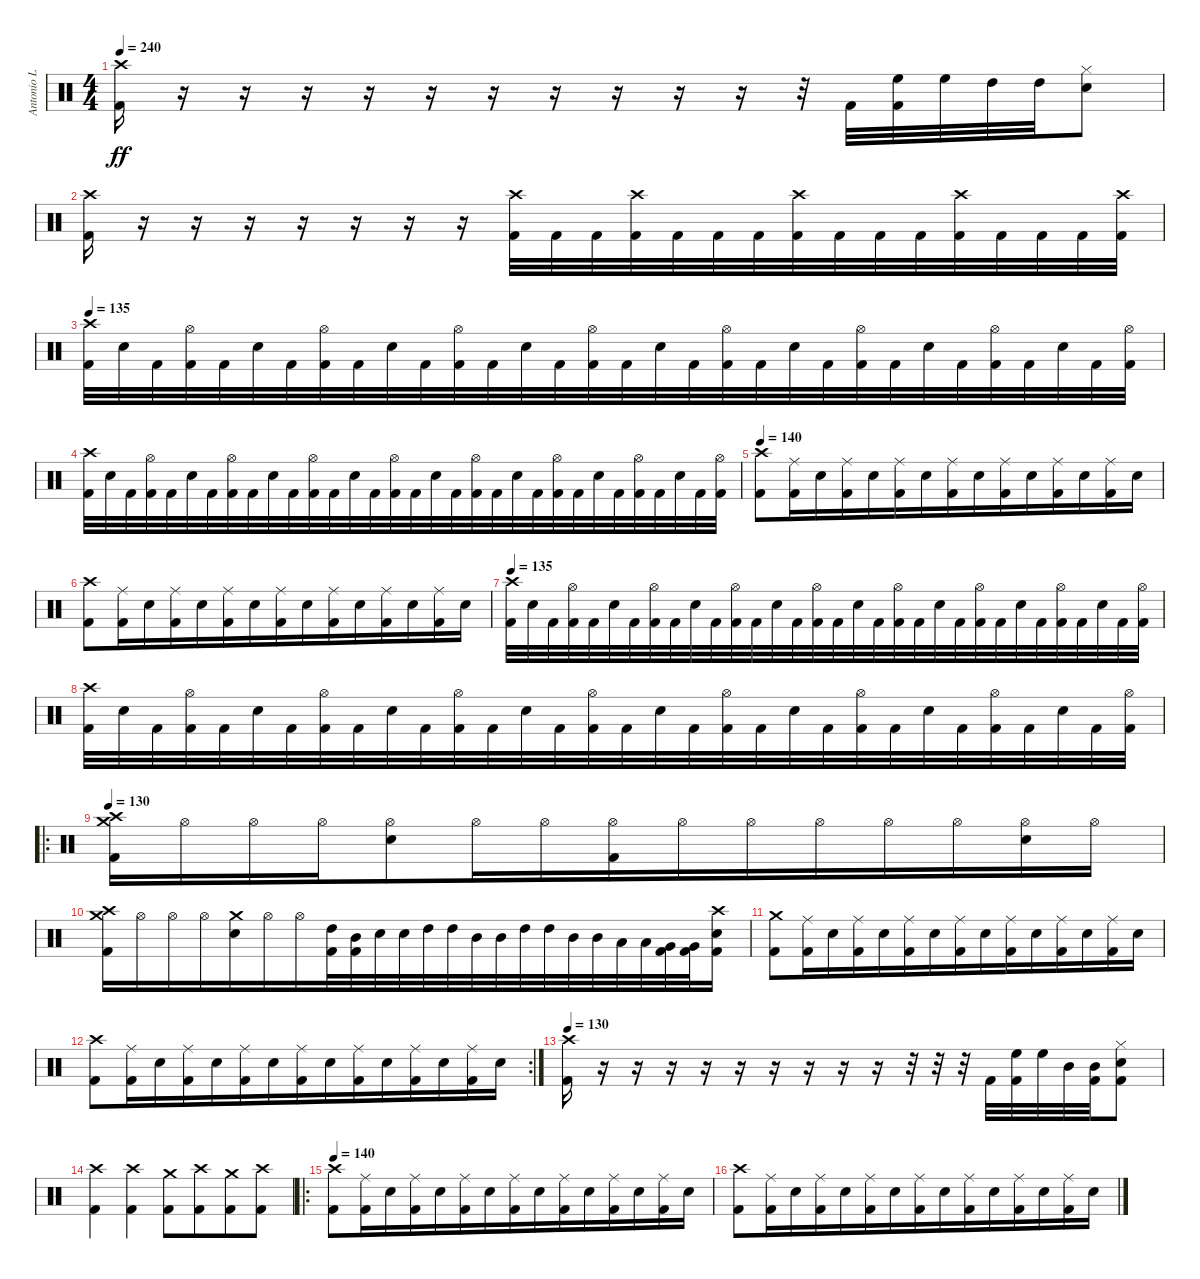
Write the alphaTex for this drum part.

\track ("Antonio L" "Antonio L") {instrument percussion}
\staff {score}
\articulation defaults
\ts (4 4)
\section ("" "")
\tempo 240
\tempo 140
\tempo 240
\clef neutral
\ks c
("Kick (hit) 2" "Crash high (hit)").16{dy ff} r.16 r.16 r.16 r.16 r.16 r.16 r.16 r.16 r.16 r.16 r.32 "Kick (hit) 2".32{beam merge} ("High Floor Tom (hit)" "Kick (hit) 2").32 "High Floor Tom (hit)".32 "High Tom (hit)".32 "High Tom (hit)".32 ("Hi-Hat (closed)" "Electric Snare (hit)").8 |
("Kick (hit) 2" "Crash high (hit)").16 r.16 r.16 r.16 r.16 r.16 r.16 r.16 ("Crash high (hit)" "Kick (hit) 2").32 "Kick (hit) 2".32 "Kick (hit) 2".32 ("Crash high (hit)" "Kick (hit) 2").32 "Kick (hit) 2".32 "Kick (hit) 2".32 "Kick (hit) 2".32 ("Crash high (hit)" "Kick (hit) 2").32{beam merge} "Kick (hit) 2".32 "Kick (hit) 2".32 "Kick (hit) 2".32 ("Crash high (hit)" "Kick (hit) 2").32 "Kick (hit) 2".32 "Kick (hit) 2".32 "Kick (hit) 2".32 ("Crash high (hit)" "Kick (hit) 2").32 |
\tempo 135
("Crash high (hit)" "Kick (hit) 2").32 "Electric Snare (hit)".32 "Kick (hit) 2".32 ("Hi-Hat (open)" "Kick (hit) 2").32 "Kick (hit) 2".32 "Electric Snare (hit)".32 "Kick (hit) 2".32 ("Hi-Hat (open)" "Kick (hit) 2").32{beam merge} "Kick (hit) 2".32 "Electric Snare (hit)".32 "Kick (hit) 2".32 ("Hi-Hat (open)" "Kick (hit) 2").32 "Kick (hit) 2".32 "Electric Snare (hit)".32 "Kick (hit) 2".32 ("Hi-Hat (open)" "Kick (hit) 2").32{beam merge} "Kick (hit) 2".32 "Electric Snare (hit)".32 "Kick (hit) 2".32 ("Hi-Hat (open)" "Kick (hit) 2").32 "Kick (hit) 2".32 "Electric Snare (hit)".32 "Kick (hit) 2".32 ("Hi-Hat (open)" "Kick (hit) 2").32{beam merge} "Kick (hit) 2".32 "Electric Snare (hit)".32 "Kick (hit) 2".32 ("Hi-Hat (open)" "Kick (hit) 2").32 "Kick (hit) 2".32 "Electric Snare (hit)".32 "Kick (hit) 2".32 ("Hi-Hat (open)" "Kick (hit) 2").32 |
("Crash high (hit)" "Kick (hit) 2").32 "Electric Snare (hit)".32 "Kick (hit) 2".32 ("Hi-Hat (open)" "Kick (hit) 2").32 "Kick (hit) 2".32 "Electric Snare (hit)".32 "Kick (hit) 2".32 ("Hi-Hat (open)" "Kick (hit) 2").32{beam merge} "Kick (hit) 2".32 "Electric Snare (hit)".32 "Kick (hit) 2".32 ("Hi-Hat (open)" "Kick (hit) 2").32 "Kick (hit) 2".32 "Electric Snare (hit)".32 "Kick (hit) 2".32 ("Hi-Hat (open)" "Kick (hit) 2").32{beam merge} "Kick (hit) 2".32 "Electric Snare (hit)".32 "Kick (hit) 2".32 ("Hi-Hat (open)" "Kick (hit) 2").32 "Kick (hit) 2".32 "Electric Snare (hit)".32 "Kick (hit) 2".32 ("Hi-Hat (open)" "Kick (hit) 2").32{beam merge} "Kick (hit) 2".32 "Electric Snare (hit)".32 "Kick (hit) 2".32 ("Hi-Hat (open)" "Kick (hit) 2").32 "Kick (hit) 2".32 "Electric Snare (hit)".32 "Kick (hit) 2".32 ("Hi-Hat (open)" "Kick (hit) 2").32 |
\tempo 140
("Crash high (hit)" "Kick (hit) 2").8 ("Ride (middle)" "Kick (hit) 2").16 "Electric Snare (hit)".16{beam merge} ("Ride (middle)" "Kick (hit) 2").16 "Electric Snare (hit)".16 ("Ride (middle)" "Kick (hit) 2").16 "Electric Snare (hit)".16{beam merge} ("Ride (middle)" "Kick (hit) 2").16 "Electric Snare (hit)".16 ("Ride (middle)" "Kick (hit) 2").16 "Electric Snare (hit)".16{beam merge} ("Ride (middle)" "Kick (hit) 2").16 "Electric Snare (hit)".16 ("Ride (middle)" "Kick (hit) 2").16 "Electric Snare (hit)".16 |
("Crash high (hit)" "Kick (hit) 2").8 ("Ride (middle)" "Kick (hit) 2").16 "Electric Snare (hit)".16{beam merge} ("Ride (middle)" "Kick (hit) 2").16 "Electric Snare (hit)".16 ("Ride (middle)" "Kick (hit) 2").16 "Electric Snare (hit)".16{beam merge} ("Ride (middle)" "Kick (hit) 2").16 "Electric Snare (hit)".16 ("Ride (middle)" "Kick (hit) 2").16 "Electric Snare (hit)".16{beam merge} ("Ride (middle)" "Kick (hit) 2").16 "Electric Snare (hit)".16 ("Ride (middle)" "Kick (hit) 2").16 "Electric Snare (hit)".16 |
\tempo 135
("Crash high (hit)" "Kick (hit) 2").32 "Electric Snare (hit)".32 "Kick (hit) 2".32 ("Hi-Hat (open)" "Kick (hit) 2").32 "Kick (hit) 2".32 "Electric Snare (hit)".32 "Kick (hit) 2".32 ("Hi-Hat (open)" "Kick (hit) 2").32{beam merge} "Kick (hit) 2".32 "Electric Snare (hit)".32 "Kick (hit) 2".32 ("Hi-Hat (open)" "Kick (hit) 2").32 "Kick (hit) 2".32 "Electric Snare (hit)".32 "Kick (hit) 2".32 ("Hi-Hat (open)" "Kick (hit) 2").32{beam merge} "Kick (hit) 2".32 "Electric Snare (hit)".32 "Kick (hit) 2".32 ("Hi-Hat (open)" "Kick (hit) 2").32 "Kick (hit) 2".32 "Electric Snare (hit)".32 "Kick (hit) 2".32 ("Hi-Hat (open)" "Kick (hit) 2").32{beam merge} "Kick (hit) 2".32 "Electric Snare (hit)".32 "Kick (hit) 2".32 ("Hi-Hat (open)" "Kick (hit) 2").32 "Kick (hit) 2".32 "Electric Snare (hit)".32 "Kick (hit) 2".32 ("Hi-Hat (open)" "Kick (hit) 2").32 |
("Crash high (hit)" "Kick (hit) 2").32 "Electric Snare (hit)".32 "Kick (hit) 2".32 ("Hi-Hat (open)" "Kick (hit) 2").32 "Kick (hit) 2".32 "Electric Snare (hit)".32 "Kick (hit) 2".32 ("Hi-Hat (open)" "Kick (hit) 2").32{beam merge} "Kick (hit) 2".32 "Electric Snare (hit)".32 "Kick (hit) 2".32 ("Hi-Hat (open)" "Kick (hit) 2").32 "Kick (hit) 2".32 "Electric Snare (hit)".32 "Kick (hit) 2".32 ("Hi-Hat (open)" "Kick (hit) 2").32{beam merge} "Kick (hit) 2".32 "Electric Snare (hit)".32 "Kick (hit) 2".32 ("Hi-Hat (open)" "Kick (hit) 2").32 "Kick (hit) 2".32 "Electric Snare (hit)".32 "Kick (hit) 2".32 ("Hi-Hat (open)" "Kick (hit) 2").32{beam merge} "Kick (hit) 2".32 "Electric Snare (hit)".32 "Kick (hit) 2".32 ("Hi-Hat (open)" "Kick (hit) 2").32 "Kick (hit) 2".32 "Electric Snare (hit)".32 "Kick (hit) 2".32 ("Hi-Hat (open)" "Kick (hit) 2").32 |
\ro
\tempo 130
("Crash medium (hit)" "Crash high (hit)" "Kick (hit) 2").16 "Hi-Hat (open)".16 "Hi-Hat (open)".16 "Hi-Hat (open)".16{beam merge} ("Hi-Hat (open)" "Electric Snare (hit)").8 "Hi-Hat (open)".16 "Hi-Hat (open)".16{beam merge} ("Hi-Hat (open)" "Kick (hit) 2").16 "Hi-Hat (open)".16 "Hi-Hat (open)".16 "Hi-Hat (open)".16{beam merge} "Hi-Hat (open)".16 "Hi-Hat (open)".16 ("Hi-Hat (open)" "Electric Snare (hit)").16 "Hi-Hat (open)".16 |
("Crash medium (hit)" "Crash high (hit)" "Kick (hit) 2").16 "Hi-Hat (open)".16 "Hi-Hat (open)".16 "Hi-Hat (open)".16{beam merge} ("Crash medium (hit)" "Electric Snare (hit)").16 "Hi-Hat (open)".16 "Hi-Hat (open)".16 ("High Tom (hit)" "Kick (hit) 2").32 ("Mid Tom (hit)" "Kick (hit) 2").32{beam merge} "Electric Snare (hit)".32 "Electric Snare (hit)".32 "High Tom (hit)".32 "High Tom (hit)".32 "Mid Tom (hit)".32 "Mid Tom (hit)".32 "High Tom (hit)".32 "High Tom (hit)".32{beam merge} "Mid Tom (hit)".32 "Mid Tom (hit)".32 "Low Tom (hit)".32 "Low Tom (hit)".32 ("Very Low Tom (hit)" "Kick (hit) 2").32 ("Very Low Tom (hit)" "Kick (hit) 2").32 ("Crash high (hit)" "Electric Snare (hit)" "Kick (hit) 2").16 |
("Crash medium (hit)" "Kick (hit) 2").8 ("Ride (middle)" "Kick (hit) 2").16 "Electric Snare (hit)".16{beam merge} ("Ride (middle)" "Kick (hit) 2").16 "Electric Snare (hit)".16 ("Ride (middle)" "Kick (hit) 2").16 "Electric Snare (hit)".16{beam merge} ("Ride (middle)" "Kick (hit) 2").16 "Electric Snare (hit)".16 ("Ride (middle)" "Kick (hit) 2").16 "Electric Snare (hit)".16{beam merge} ("Ride (middle)" "Kick (hit) 2").16 "Electric Snare (hit)".16 ("Ride (middle)" "Kick (hit) 2").16 "Electric Snare (hit)".16 |
\rc 2
("Crash high (hit)" "Kick (hit) 2").8 ("Ride (middle)" "Kick (hit) 2").16 "Electric Snare (hit)".16{beam merge} ("Ride (middle)" "Kick (hit) 2").16 "Electric Snare (hit)".16 ("Ride (middle)" "Kick (hit) 2").16 "Electric Snare (hit)".16{beam merge} ("Ride (middle)" "Kick (hit) 2").16 "Electric Snare (hit)".16 ("Ride (middle)" "Kick (hit) 2").16 "Electric Snare (hit)".16{beam merge} ("Ride (middle)" "Kick (hit) 2").16 "Electric Snare (hit)".16 ("Ride (middle)" "Kick (hit) 2").16 "Electric Snare (hit)".16 |
\tempo 130
("Crash high (hit)" "Kick (hit) 2").16 r.16 r.16 r.16 r.16 r.16 r.16 r.16 r.16 r.16 r.32 r.32 r.32 "Kick (hit) 2".32{beam merge} ("High Floor Tom (hit)" "Kick (hit) 2").32 "High Floor Tom (hit)".32 "Mid Tom (hit)".32 ("Mid Tom (hit)" "Kick (hit) 2").32 ("Hi-Hat (closed)" "Electric Snare (hit)" "Kick (hit) 2").8 |
("Crash high (hit)" "Kick (hit) 2").4 ("Crash high (hit)" "Kick (hit) 2").4 ("Crash medium (hit)" "Kick (hit) 2").8 ("Crash high (hit)" "Kick (hit) 2").8{beam merge} ("Crash medium (hit)" "Kick (hit) 2").8 ("Crash high (hit)" "Kick (hit) 2").8 |
\ro
\tempo 140
("Crash high (hit)" "Kick (hit) 2").8 ("Ride (middle)" "Kick (hit) 2").16 "Electric Snare (hit)".16{beam merge} ("Ride (middle)" "Kick (hit) 2").16 "Electric Snare (hit)".16 ("Ride (middle)" "Kick (hit) 2").16 "Electric Snare (hit)".16{beam merge} ("Ride (middle)" "Kick (hit) 2").16 "Electric Snare (hit)".16 ("Ride (middle)" "Kick (hit) 2").16 "Electric Snare (hit)".16{beam merge} ("Ride (middle)" "Kick (hit) 2").16 "Electric Snare (hit)".16 ("Ride (middle)" "Kick (hit) 2").16 "Electric Snare (hit)".16 |
("Crash high (hit)" "Kick (hit) 2").8 ("Ride (middle)" "Kick (hit) 2").16 "Electric Snare (hit)".16{beam merge} ("Ride (middle)" "Kick (hit) 2").16 "Electric Snare (hit)".16 ("Ride (middle)" "Kick (hit) 2").16 "Electric Snare (hit)".16{beam merge} ("Ride (middle)" "Kick (hit) 2").16 "Electric Snare (hit)".16 ("Ride (middle)" "Kick (hit) 2").16 "Electric Snare (hit)".16{beam merge} ("Ride (middle)" "Kick (hit) 2").16 "Electric Snare (hit)".16 ("Ride (middle)" "Kick (hit) 2").16 "Electric Snare (hit)".16
